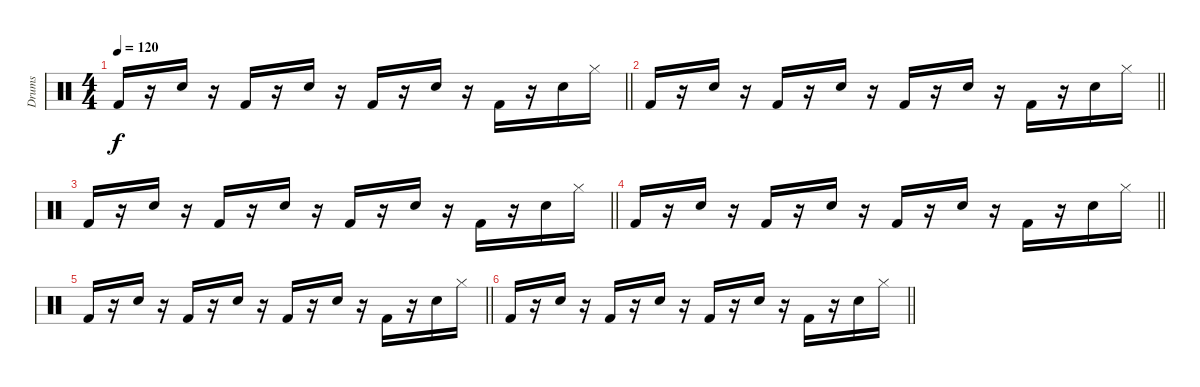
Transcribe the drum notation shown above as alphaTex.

\track ("Drums" "Drums") {instrument percussion}
\staff {score}
\articulation defaults
\ts (4 4)
\tempo 120
\clef neutral
\barLineRight lightlight
\ks c "Kick (hit) 2".16{dy f}
r.16 "Snare (hit) 2".16 r.16 "Kick (hit) 2".16 r.16 "Snare (hit) 2".16 r.16 "Kick (hit) 2".16 r.16 "Snare (hit) 2".16 r.16 "Kick (hit) 2".16 r.16 "Snare (hit) 2".16 "Hi-Hat (closed)".16 |
\barLineRight lightlight "Kick (hit) 2".16
r.16 "Snare (hit) 2".16 r.16 "Kick (hit) 2".16 r.16 "Snare (hit) 2".16 r.16 "Kick (hit) 2".16 r.16 "Snare (hit) 2".16 r.16 "Kick (hit) 2".16 r.16 "Snare (hit) 2".16 "Hi-Hat (closed)".16 |
\barLineRight lightlight "Kick (hit) 2".16
r.16 "Snare (hit) 2".16 r.16 "Kick (hit) 2".16 r.16 "Snare (hit) 2".16 r.16 "Kick (hit) 2".16 r.16 "Snare (hit) 2".16 r.16 "Kick (hit) 2".16 r.16 "Snare (hit) 2".16 "Hi-Hat (closed)".16 |
\barLineRight lightlight "Kick (hit) 2".16
r.16 "Snare (hit) 2".16 r.16 "Kick (hit) 2".16 r.16 "Snare (hit) 2".16 r.16 "Kick (hit) 2".16 r.16 "Snare (hit) 2".16 r.16 "Kick (hit) 2".16 r.16 "Snare (hit) 2".16 "Hi-Hat (closed)".16 |
\barLineRight lightlight "Kick (hit) 2".16
r.16 "Snare (hit) 2".16 r.16 "Kick (hit) 2".16 r.16 "Snare (hit) 2".16 r.16 "Kick (hit) 2".16 r.16 "Snare (hit) 2".16 r.16 "Kick (hit) 2".16 r.16 "Snare (hit) 2".16 "Hi-Hat (closed)".16 |
\barLineRight lightlight "Kick (hit) 2".16
r.16 "Snare (hit) 2".16 r.16 "Kick (hit) 2".16 r.16 "Snare (hit) 2".16 r.16 "Kick (hit) 2".16 r.16 "Snare (hit) 2".16 r.16 "Kick (hit) 2".16 r.16 "Snare (hit) 2".16 "Hi-Hat (closed)".16
